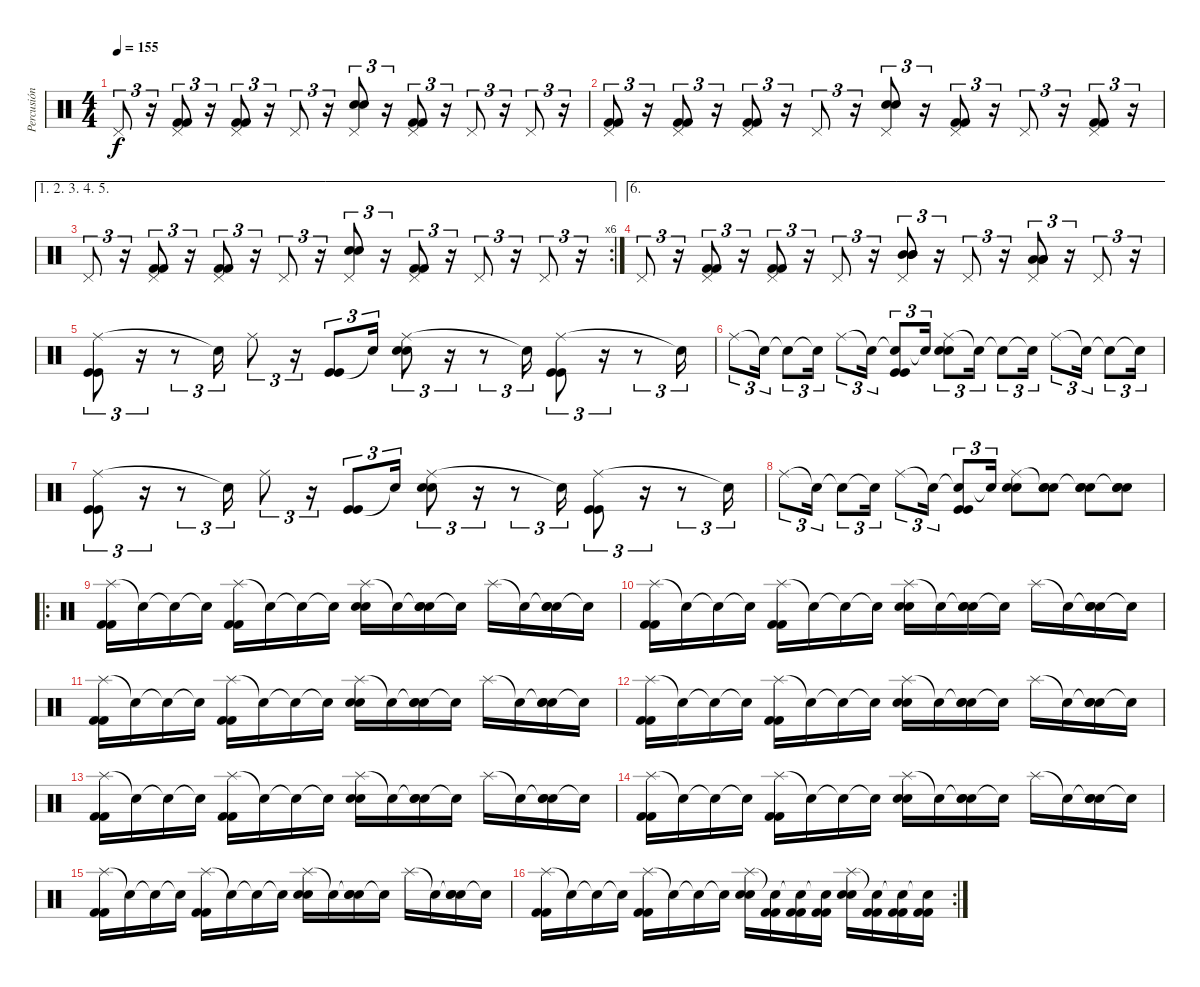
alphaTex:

\track ("Percusión" "Percusión") {instrument percussion}
\staff {score}
\articulation defaults
\ts (4 4)
\tempo 155
\clef neutral
\ks c "Pedal Hi-Hat (hit)".8{tu (3 2) dy f}
r.16{tu (3 2)} ("Pedal Hi-Hat (hit)" "Kick (hit) 2" "Kick (hit) 2").8{tu (3 2)} r.16{tu (3 2)} ("Pedal Hi-Hat (hit)" "Kick (hit) 2" "Kick (hit) 2").8{tu (3 2)} r.16{tu (3 2)} "Pedal Hi-Hat (hit)".8{tu (3 2)} r.16{tu (3 2)} ("Pedal Hi-Hat (hit)" "Electric Snare (hit)" "Electric Snare (hit)").8{tu (3 2)} r.16{tu (3 2)} ("Pedal Hi-Hat (hit)" "Kick (hit) 2" "Kick (hit) 2").8{tu (3 2)} r.16{tu (3 2)} "Pedal Hi-Hat (hit)".8{tu (3 2)} r.16{tu (3 2)} "Pedal Hi-Hat (hit)".8{tu (3 2)} r.16{tu (3 2)} |
("Pedal Hi-Hat (hit)" "Kick (hit) 2" "Kick (hit) 2").8{tu (3 2)} r.16{tu (3 2)} ("Pedal Hi-Hat (hit)" "Kick (hit) 2" "Kick (hit) 2").8{tu (3 2)} r.16{tu (3 2)} ("Pedal Hi-Hat (hit)" "Kick (hit) 2" "Kick (hit) 2").8{tu (3 2)} r.16{tu (3 2)} "Pedal Hi-Hat (hit)".8{tu (3 2)} r.16{tu (3 2)} ("Pedal Hi-Hat (hit)" "Electric Snare (hit)" "Electric Snare (hit)").8{tu (3 2)} r.16{tu (3 2)} ("Pedal Hi-Hat (hit)" "Kick (hit) 2" "Kick (hit) 2").8{tu (3 2)} r.16{tu (3 2)} "Pedal Hi-Hat (hit)".8{tu (3 2)} r.16{tu (3 2)} ("Pedal Hi-Hat (hit)" "Kick (hit) 2" "Kick (hit) 2").8{tu (3 2)} r.16{tu (3 2)} |
\ae (1 2 3 4 5)
\rc 6 "Pedal Hi-Hat (hit)".8{tu (3 2)}
r.16{tu (3 2)} ("Pedal Hi-Hat (hit)" "Kick (hit) 2" "Kick (hit) 2").8{tu (3 2)} r.16{tu (3 2)} ("Pedal Hi-Hat (hit)" "Kick (hit) 2" "Kick (hit) 2").8{tu (3 2)} r.16{tu (3 2)} "Pedal Hi-Hat (hit)".8{tu (3 2)} r.16{tu (3 2)} ("Pedal Hi-Hat (hit)" "Electric Snare (hit)" "Electric Snare (hit)").8{tu (3 2)} r.16{tu (3 2)} ("Pedal Hi-Hat (hit)" "Kick (hit) 2" "Kick (hit) 2").8{tu (3 2)} r.16{tu (3 2)} "Pedal Hi-Hat (hit)".8{tu (3 2)} r.16{tu (3 2)} "Pedal Hi-Hat (hit)".8{tu (3 2)} r.16{tu (3 2)} |
\ae 6 "Pedal Hi-Hat (hit)".8{tu (3 2)}
r.16{tu (3 2)} ("Pedal Hi-Hat (hit)" "Kick (hit) 2" "Kick (hit) 2").8{tu (3 2)} r.16{tu (3 2)} ("Pedal Hi-Hat (hit)" "Kick (hit) 2" "Kick (hit) 2").8{tu (3 2)} r.16{tu (3 2)} "Pedal Hi-Hat (hit)".8{tu (3 2)} r.16{tu (3 2)} ("Pedal Hi-Hat (hit)" "Mid Tom (hit)" "Mid Tom (hit)" "Mid Tom (hit)").8{tu (3 2)} r.16{tu (3 2)} "Pedal Hi-Hat (hit)".8{tu (3 2)} r.16{tu (3 2)} ("Pedal Hi-Hat (hit)" "Low Tom (hit)" "Low Tom (hit)" "Low Tom (hit)").8{tu (3 2)} r.16{tu (3 2)} "Pedal Hi-Hat (hit)".8{tu (3 2)} r.16{tu (3 2)} |
("Ride (middle)" "Kick (hit)" "Kick (hit)").8{tu (3 2)} r.16{tu (3 2)} r.8{tu (3 2)} "Snare (hit)"{t}.16{tu (3 2)} "Ride (middle)".8{tu (3 2)} r.16{tu (3 2)} ("Kick (hit)" "Kick (hit)").8{tu (3 2)} "Snare (hit)"{t}.16{tu (3 2)} ("Ride (middle)" "Snare (hit) 2" "Snare (hit) 2").8{tu (3 2)} r.16{tu (3 2)} r.8{tu (3 2)} "Snare (hit)"{t}.16{tu (3 2)} ("Ride (middle)" "Kick (hit)" "Kick (hit)").8{tu (3 2)} r.16{tu (3 2)} r.8{tu (3 2)} "Snare (hit)"{t}.16{tu (3 2)} |
"Ride (middle)".8{tu (3 2)} "Snare (hit)"{t}.16{tu (3 2)} "Snare (hit)"{t}.8{tu (3 2)} "Snare (hit)"{t}.16{tu (3 2)} "Ride (middle)".8{tu (3 2)} "Snare (hit)"{t}.16{tu (3 2)} ("Snare (hit)"{t} "Kick (hit)" "Kick (hit)").8{tu (3 2)} "Snare (hit)"{t}.16{tu (3 2)} ("Ride (middle)" "Snare (hit) 2" "Snare (hit) 2").8{tu (3 2)} "Snare (hit)"{t}.16{tu (3 2)} "Snare (hit)"{t}.8{tu (3 2)} "Snare (hit)"{t}.16{tu (3 2)} "Ride (middle)".8{tu (3 2)} "Snare (hit)"{t}.16{tu (3 2)} "Snare (hit)"{t}.8{tu (3 2)} "Snare (hit)"{t}.16{tu (3 2)} |
("Ride (middle)" "Kick (hit)" "Kick (hit)").8{tu (3 2)} r.16{tu (3 2)} r.8{tu (3 2)} "Snare (hit)"{t}.16{tu (3 2)} "Ride (middle)".8{tu (3 2)} r.16{tu (3 2)} ("Kick (hit)" "Kick (hit)").8{tu (3 2)} "Snare (hit)"{t}.16{tu (3 2)} ("Ride (middle)" "Snare (hit) 2" "Snare (hit) 2").8{tu (3 2)} r.16{tu (3 2)} r.8{tu (3 2)} "Snare (hit)"{t}.16{tu (3 2)} ("Ride (middle)" "Kick (hit)" "Kick (hit)").8{tu (3 2)} r.16{tu (3 2)} r.8{tu (3 2)} "Snare (hit)"{t}.16{tu (3 2)} |
"Ride (middle)".8{tu (3 2)} "Snare (hit)"{t}.16{tu (3 2)} "Snare (hit)"{t}.8{tu (3 2)} "Snare (hit)"{t}.16{tu (3 2)} "Ride (middle)".8{tu (3 2)} "Snare (hit)"{t}.16{tu (3 2)} ("Snare (hit)"{t} "Kick (hit)" "Kick (hit)").8{tu (3 2)} "Snare (hit)"{t}.16{tu (3 2)} ("Ride (middle)" "Electric Snare (hit)" "Electric Snare (hit)").8 ("Snare (hit)"{t} "Electric Snare (hit)" "Electric Snare (hit)").8 ("Snare (hit)"{t} "Electric Snare (hit)" "Electric Snare (hit)").8 ("Snare (hit)"{t} "Electric Snare (hit)" "Electric Snare (hit)").8 |
\ro
("Splash (hit)" "Kick (hit) 2" "Kick (hit) 2").16 "Snare (hit)"{t}.16 "Snare (hit)"{t}.16 "Snare (hit)"{t}.16 ("Splash (hit)" "Kick (hit) 2" "Kick (hit) 2").16 "Snare (hit)"{t}.16 "Snare (hit)"{t}.16 "Snare (hit)"{t}.16 ("Splash (hit)" "Electric Snare (hit)" "Electric Snare (hit)").16 "Snare (hit)"{t}.16 ("Snare (hit)"{t} "Electric Snare (hit)" "Electric Snare (hit)").16 "Snare (hit)"{t}.16 "Splash (hit)".16 "Snare (hit)"{t}.16 ("Snare (hit)"{t} "Electric Snare (hit)" "Electric Snare (hit)").16 "Snare (hit)"{t}.16 |
("Splash (hit)" "Kick (hit) 2" "Kick (hit) 2").16 "Snare (hit)"{t}.16 "Snare (hit)"{t}.16 "Snare (hit)"{t}.16 ("Splash (hit)" "Kick (hit) 2" "Kick (hit) 2").16 "Snare (hit)"{t}.16 "Snare (hit)"{t}.16 "Snare (hit)"{t}.16 ("Splash (hit)" "Electric Snare (hit)" "Electric Snare (hit)").16 "Snare (hit)"{t}.16 ("Snare (hit)"{t} "Electric Snare (hit)" "Electric Snare (hit)").16 "Snare (hit)"{t}.16 "Splash (hit)".16 "Snare (hit)"{t}.16 ("Snare (hit)"{t} "Electric Snare (hit)" "Electric Snare (hit)").16 "Snare (hit)"{t}.16 |
("Splash (hit)" "Kick (hit) 2" "Kick (hit) 2").16 "Snare (hit)"{t}.16 "Snare (hit)"{t}.16 "Snare (hit)"{t}.16 ("Splash (hit)" "Kick (hit) 2" "Kick (hit) 2").16 "Snare (hit)"{t}.16 "Snare (hit)"{t}.16 "Snare (hit)"{t}.16 ("Splash (hit)" "Electric Snare (hit)" "Electric Snare (hit)").16 "Snare (hit)"{t}.16 ("Snare (hit)"{t} "Electric Snare (hit)" "Electric Snare (hit)").16 "Snare (hit)"{t}.16 "Splash (hit)".16 "Snare (hit)"{t}.16 ("Snare (hit)"{t} "Electric Snare (hit)" "Electric Snare (hit)").16 "Snare (hit)"{t}.16 |
("Splash (hit)" "Kick (hit) 2" "Kick (hit) 2").16 "Snare (hit)"{t}.16 "Snare (hit)"{t}.16 "Snare (hit)"{t}.16 ("Splash (hit)" "Kick (hit) 2" "Kick (hit) 2").16 "Snare (hit)"{t}.16 "Snare (hit)"{t}.16 "Snare (hit)"{t}.16 ("Splash (hit)" "Electric Snare (hit)" "Electric Snare (hit)").16 "Snare (hit)"{t}.16 ("Snare (hit)"{t} "Electric Snare (hit)" "Electric Snare (hit)").16 "Snare (hit)"{t}.16 "Splash (hit)".16 "Snare (hit)"{t}.16 ("Snare (hit)"{t} "Electric Snare (hit)" "Electric Snare (hit)").16 "Snare (hit)"{t}.16 |
("Splash (hit)" "Kick (hit) 2" "Kick (hit) 2").16 "Snare (hit)"{t}.16 "Snare (hit)"{t}.16 "Snare (hit)"{t}.16 ("Splash (hit)" "Kick (hit) 2" "Kick (hit) 2").16 "Snare (hit)"{t}.16 "Snare (hit)"{t}.16 "Snare (hit)"{t}.16 ("Splash (hit)" "Electric Snare (hit)" "Electric Snare (hit)").16 "Snare (hit)"{t}.16 ("Snare (hit)"{t} "Electric Snare (hit)" "Electric Snare (hit)").16 "Snare (hit)"{t}.16 "Splash (hit)".16 "Snare (hit)"{t}.16 ("Snare (hit)"{t} "Electric Snare (hit)" "Electric Snare (hit)").16 "Snare (hit)"{t}.16 |
("Splash (hit)" "Kick (hit) 2" "Kick (hit) 2").16 "Snare (hit)"{t}.16 "Snare (hit)"{t}.16 "Snare (hit)"{t}.16 ("Splash (hit)" "Kick (hit) 2" "Kick (hit) 2").16 "Snare (hit)"{t}.16 "Snare (hit)"{t}.16 "Snare (hit)"{t}.16 ("Splash (hit)" "Electric Snare (hit)" "Electric Snare (hit)").16 "Snare (hit)"{t}.16 ("Snare (hit)"{t} "Electric Snare (hit)" "Electric Snare (hit)").16 "Snare (hit)"{t}.16 "Splash (hit)".16 "Snare (hit)"{t}.16 ("Snare (hit)"{t} "Electric Snare (hit)" "Electric Snare (hit)").16 "Snare (hit)"{t}.16 |
("Splash (hit)" "Kick (hit) 2" "Kick (hit) 2").16 "Snare (hit)"{t}.16 "Snare (hit)"{t}.16 "Snare (hit)"{t}.16 ("Splash (hit)" "Kick (hit) 2" "Kick (hit) 2").16 "Snare (hit)"{t}.16 "Snare (hit)"{t}.16 "Snare (hit)"{t}.16 ("Splash (hit)" "Electric Snare (hit)" "Electric Snare (hit)").16 "Snare (hit)"{t}.16 ("Snare (hit)"{t} "Electric Snare (hit)" "Electric Snare (hit)").16 "Snare (hit)"{t}.16 "Splash (hit)".16 "Snare (hit)"{t}.16 ("Snare (hit)"{t} "Electric Snare (hit)" "Electric Snare (hit)").16 "Snare (hit)"{t}.16 |
\rc 2
("Splash (hit)" "Kick (hit) 2" "Kick (hit) 2").16 "Snare (hit)"{t}.16 "Snare (hit)"{t}.16 "Snare (hit)"{t}.16 ("Splash (hit)" "Kick (hit) 2" "Kick (hit) 2").16 "Snare (hit)"{t}.16 "Snare (hit)"{t}.16 "Snare (hit)"{t}.16 ("Splash (hit)" "Electric Snare (hit)" "Electric Snare (hit)").16 ("Snare (hit)"{t} "Kick (hit) 2" "Kick (hit) 2").16 ("Snare (hit)"{t} "Kick (hit) 2" "Kick (hit) 2").16 ("Snare (hit)"{t} "Kick (hit) 2" "Kick (hit) 2").16 ("Splash (hit)" "Electric Snare (hit)" "Electric Snare (hit)").16 ("Snare (hit)"{t} "Kick (hit) 2" "Kick (hit) 2").16 ("Snare (hit)"{t} "Kick (hit) 2" "Kick (hit) 2").16 ("Snare (hit)"{t} "Kick (hit) 2" "Kick (hit) 2").16
